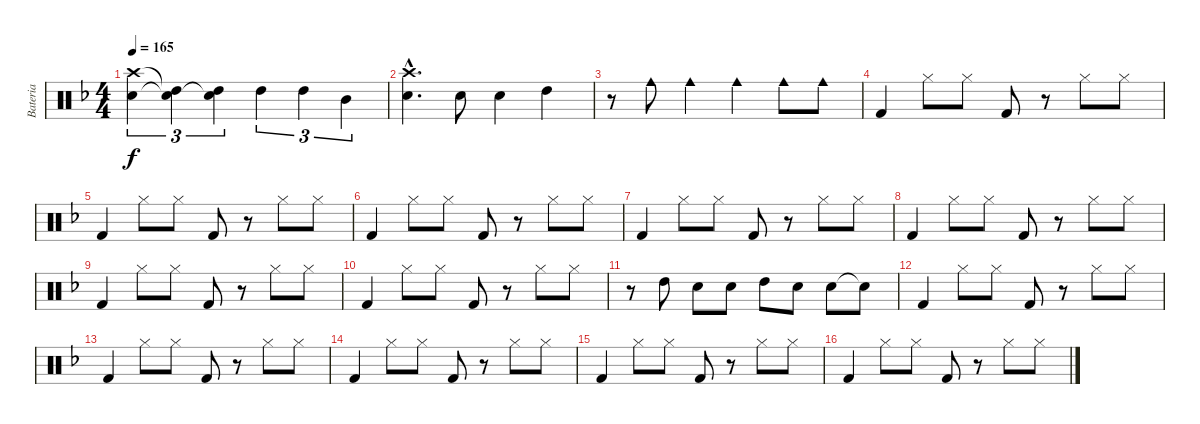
\track ("Bateria" "Bateria") {instrument percussion}
\staff {score}
\articulation defaults
\ts (4 4)
\tempo 165
\clef neutral
\ks dminor
("Crash high (hit)" "Snare (hit) 2").4{tu (3 2) dy f} ("High Tom (hit)"{t} "Snare (hit)"{t}).4{tu (3 2)} ("High Tom (hit)" "Snare (hit)"{t}).4{tu (3 2)} "High Tom (hit)".4{tu (3 2)} "High Tom (hit)".4{tu (3 2)} "Mid Tom (hit)".4{tu (3 2)} |
("Crash high (hit)"{hac} "Snare (hit) 2"{hac}).4{d} "Snare (hit) 2".8 "Snare (hit) 2".4 "High Tom (hit)".4 |
r.8 "Cowbell medium (hit)".8 "Cowbell medium (hit)".4 "Cowbell medium (hit)".4 "Cowbell medium (hit)".8 "Cowbell medium (hit)".8 |
"Kick (hit) 2".4 "Hi-Hat (closed)".8 "Hi-Hat (closed)".8 "Kick (hit) 2".8 r.8 "Hi-Hat (closed)".8 "Hi-Hat (closed)".8 |
"Kick (hit) 2".4 "Hi-Hat (closed)".8 "Hi-Hat (closed)".8 "Kick (hit) 2".8 r.8 "Hi-Hat (closed)".8 "Hi-Hat (closed)".8 |
"Kick (hit) 2".4 "Hi-Hat (closed)".8 "Hi-Hat (closed)".8 "Kick (hit) 2".8 r.8 "Hi-Hat (closed)".8 "Hi-Hat (closed)".8 |
"Kick (hit) 2".4 "Hi-Hat (closed)".8 "Hi-Hat (closed)".8 "Kick (hit) 2".8 r.8 "Hi-Hat (closed)".8 "Hi-Hat (closed)".8 |
"Kick (hit) 2".4 "Hi-Hat (closed)".8 "Hi-Hat (closed)".8 "Kick (hit) 2".8 r.8 "Hi-Hat (closed)".8 "Hi-Hat (closed)".8 |
"Kick (hit) 2".4 "Hi-Hat (closed)".8 "Hi-Hat (closed)".8 "Kick (hit) 2".8 r.8 "Hi-Hat (closed)".8 "Hi-Hat (closed)".8 |
"Kick (hit) 2".4 "Hi-Hat (closed)".8 "Hi-Hat (closed)".8 "Kick (hit) 2".8 r.8 "Hi-Hat (closed)".8 "Hi-Hat (closed)".8 |
r.8 "High Tom (hit)".8 "Snare (hit) 2".8 "Snare (hit) 2".8 "High Tom (hit)".8 "Snare (hit) 2".8 "Snare (hit) 2".8 "Snare (hit)"{t}.8 |
"Kick (hit) 2".4 "Hi-Hat (closed)".8 "Hi-Hat (closed)".8 "Kick (hit) 2".8 r.8 "Hi-Hat (closed)".8 "Hi-Hat (closed)".8 |
"Kick (hit) 2".4 "Hi-Hat (closed)".8 "Hi-Hat (closed)".8 "Kick (hit) 2".8 r.8 "Hi-Hat (closed)".8 "Hi-Hat (closed)".8 |
"Kick (hit) 2".4 "Hi-Hat (closed)".8 "Hi-Hat (closed)".8 "Kick (hit) 2".8 r.8 "Hi-Hat (closed)".8 "Hi-Hat (closed)".8 |
"Kick (hit) 2".4 "Hi-Hat (closed)".8 "Hi-Hat (closed)".8 "Kick (hit) 2".8 r.8 "Hi-Hat (closed)".8 "Hi-Hat (closed)".8 |
"Kick (hit) 2".4 "Hi-Hat (closed)".8 "Hi-Hat (closed)".8 "Kick (hit) 2".8 r.8 "Hi-Hat (closed)".8 "Hi-Hat (closed)".8
